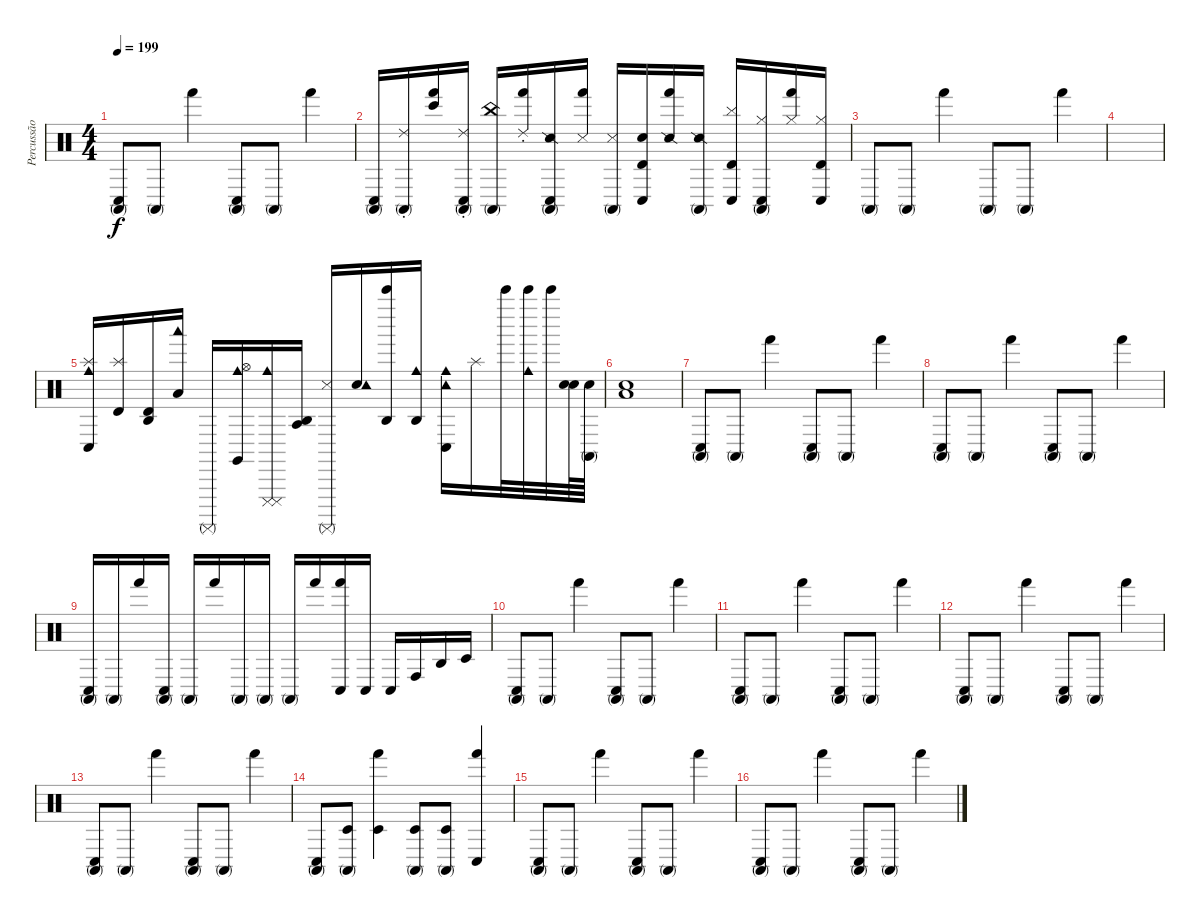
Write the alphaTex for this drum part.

\track ("Percussão" "Percussão") {instrument percussion}
\staff {score}
\articulation defaults
\ts (4 4)
\tempo 199
\clef neutral
\ks c
("Conga high (mute)" "Conga low (hit)").8{dy f} "Conga high (mute)".8 "Hand (hit)".4 ("Conga high (mute)" "Conga low (hit)").8 "Conga high (mute)".8 "Hand (hit)".4 |
("Conga high (mute)" "Conga low (hit)").16 ("Conga high (mute)" "Ride (choke) 2").16 ("Hand (hit)" "Bongo High (hit)").16 ("Conga high (mute)" "Conga low (hit)" "Ride (choke) 2").16 ("Conga high (mute)" "China (hit)").16 ("Hand (hit)" "Ride (choke) 2").16 ("Conga high (mute)" "Conga low (hit)" "Snare (side stick) 2").16 ("Hand (hit)" "Metronome (hit)").16 ("Conga high (mute)" "Metronome (hit)").16 ("Timbale high (hit)" "Conga low (hit)" "Snare (hit) 2").16 ("Hand (hit)" "Snare (side stick) 2").16 ("Conga high (mute)" "Snare (side stick) 2").16 ("Timbale high (hit)" "Conga low (hit)" "Cymbal (hit)").16 ("Conga high (mute)" "Conga low (hit)" "Hi-Hat (closed)").16 ("Hand (hit)" "Hi-Hat (closed)").16 ("Timbale high (hit)" "Conga low (hit)" "Hi-Hat (closed)").16 |
"Conga high (mute)".8 "Conga high (mute)".8 "Hand (hit)".4 "Conga high (mute)".8 "Conga high (mute)".8 "Hand (hit)".4 |
|
("Cowbell medium (hit)" "Conga low (hit)" "Splash (hit)").16 ("Splash (hit)" "Timbale high (hit)").16 ("Timbale high (hit)" "Agogo high (hit)").16 ("Low Tom (hit)" "Woodblock low (hit)").16 "Surdo (mute)".16 ("Cowbell medium (hit)" "Claves (hit)" "Hi-Hat (open)").16 ("Cuica (mute)" "Cuica (mute)" "Cowbell medium (hit)").16 ("Agogo tow (hit)" "Agogo high (hit)").16 ("Surdo (mute)" "Metronome (hit)").16 ("Snare (hit)" "Tambourine (hit)").16 ("Bell Tree (hit)" "Agogo high (hit)").16 ("Agogo high (hit)" "Cowbell medium (hit)").16 ("Tambourine (hit)" "Conga low (hit)" "Cowbell medium (hit)").16 "Splash (hit)".16 "Bell Tree (hit)".32 ("Bell Tree (hit)" "Cowbell medium (hit)").32 "Bell Tree (hit)".32 ("Snare (hit)" "Snare (hit)").64 ("Conga high (mute)" "Snare (hit)").64 |
("Snare (hit)" "Low Tom (hit)").1 |
("Conga high (mute)" "Conga low (hit)").8 "Conga high (mute)".8 "Hand (hit)".4 ("Conga high (mute)" "Conga low (hit)").8 "Conga high (mute)".8 "Hand (hit)".4 |
("Conga high (mute)" "Conga low (hit)").8 "Conga high (mute)".8 "Hand (hit)".4 ("Conga high (mute)" "Conga low (hit)").8 "Conga high (mute)".8 "Hand (hit)".4 |
("Conga high (mute)" "Conga low (hit)").16 "Conga high (mute)".16 "Hand (hit)".16 ("Conga high (mute)" "Conga low (hit)").16 "Conga high (mute)".16 "Hand (hit)".16 "Conga high (mute)".16 "Conga high (mute)".16 "Conga high (mute)".16 "Hand (hit)".16 ("Conga low (hit)" "Hand (hit)").16 "Conga low (hit)".16 "Conga low (hit)".16 "Conga high (hit)".16 "Agogo high (hit)".16 "Timbale low (hit)".16 |
("Conga high (mute)" "Conga low (hit)").8 "Conga high (mute)".8 "Hand (hit)".4 ("Conga high (mute)" "Conga low (hit)").8 "Conga high (mute)".8 "Hand (hit)".4 |
("Conga high (mute)" "Conga low (hit)").8 "Conga high (mute)".8 "Hand (hit)".4 ("Conga high (mute)" "Conga low (hit)").8 "Conga high (mute)".8 "Hand (hit)".4 |
("Conga high (mute)" "Conga low (hit)").8 "Conga high (mute)".8 "Hand (hit)".4 ("Conga high (mute)" "Conga low (hit)").8 "Conga high (mute)".8 "Hand (hit)".4 |
("Conga high (mute)" "Conga low (hit)").8 "Conga high (mute)".8 "Hand (hit)".4 ("Conga high (mute)" "Conga low (hit)").8 "Conga high (mute)".8 "Hand (hit)".4 |
("Conga high (mute)" "Conga low (hit)").8 ("Conga high (mute)" "Timbale low (hit)").8 ("Hand (hit)" "Timbale low (hit)").4 ("Conga high (mute)" "Timbale low (hit)").8 ("Conga high (mute)" "Timbale low (hit)").8 ("Hand (hit)" "Conga low (hit)").4 |
("Conga high (mute)" "Conga low (hit)").8 "Conga high (mute)".8 "Hand (hit)".4 ("Conga high (mute)" "Conga low (hit)").8 "Conga high (mute)".8 "Hand (hit)".4 |
("Conga high (mute)" "Conga low (hit)").8 "Conga high (mute)".8 "Hand (hit)".4 ("Conga high (mute)" "Conga low (hit)").8 "Conga high (mute)".8 "Hand (hit)".4
